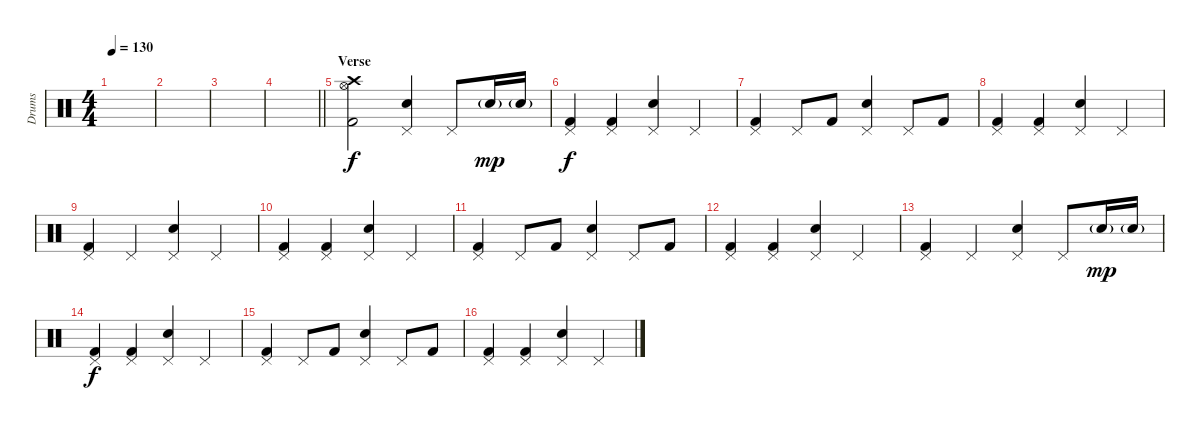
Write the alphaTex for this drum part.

\track ("Drums" "Drums") {instrument percussion}
\staff {score}
\articulation defaults
\ts (4 4)
\tempo 130
\clef neutral
\ks c
|
|
|
\barLineRight lightlight
|
\section ("" "Verse ")
("Crash high (hit)" "Hi-Hat (open)" "Kick (hit) 2").2{dy f} ("Pedal Hi-Hat (hit)" "Electric Snare (hit)").4 "Pedal Hi-Hat (hit)".8 "Electric Snare (hit)"{g}.16{dy mp} "Electric Snare (hit)"{g}.16 |
("Pedal Hi-Hat (hit)" "Kick (hit) 2").4{dy f} ("Pedal Hi-Hat (hit)" "Kick (hit) 2").4 ("Pedal Hi-Hat (hit)" "Electric Snare (hit)").4 "Pedal Hi-Hat (hit)".4 |
("Pedal Hi-Hat (hit)" "Kick (hit) 2").4 "Pedal Hi-Hat (hit)".8 "Kick (hit) 2".8 ("Pedal Hi-Hat (hit)" "Electric Snare (hit)").4 "Pedal Hi-Hat (hit)".8 "Kick (hit) 2".8 |
("Pedal Hi-Hat (hit)" "Kick (hit) 2").4 ("Pedal Hi-Hat (hit)" "Kick (hit) 2").4 ("Pedal Hi-Hat (hit)" "Electric Snare (hit)").4 "Pedal Hi-Hat (hit)".4 |
("Pedal Hi-Hat (hit)" "Kick (hit) 2").4 "Pedal Hi-Hat (hit)".4 ("Pedal Hi-Hat (hit)" "Electric Snare (hit)").4 "Pedal Hi-Hat (hit)".4 |
("Pedal Hi-Hat (hit)" "Kick (hit) 2").4 ("Pedal Hi-Hat (hit)" "Kick (hit) 2").4 ("Pedal Hi-Hat (hit)" "Electric Snare (hit)").4 "Pedal Hi-Hat (hit)".4 |
("Pedal Hi-Hat (hit)" "Kick (hit) 2").4 "Pedal Hi-Hat (hit)".8 "Kick (hit) 2".8 ("Pedal Hi-Hat (hit)" "Electric Snare (hit)").4 "Pedal Hi-Hat (hit)".8 "Kick (hit) 2".8 |
("Pedal Hi-Hat (hit)" "Kick (hit) 2").4 ("Pedal Hi-Hat (hit)" "Kick (hit) 2").4 ("Pedal Hi-Hat (hit)" "Electric Snare (hit)").4 "Pedal Hi-Hat (hit)".4 |
("Pedal Hi-Hat (hit)" "Kick (hit) 2").4 "Pedal Hi-Hat (hit)".4 ("Pedal Hi-Hat (hit)" "Electric Snare (hit)").4 "Pedal Hi-Hat (hit)".8 "Electric Snare (hit)"{g}.16{dy mp} "Electric Snare (hit)"{g}.16 |
("Pedal Hi-Hat (hit)" "Kick (hit) 2").4{dy f} ("Pedal Hi-Hat (hit)" "Kick (hit) 2").4 ("Pedal Hi-Hat (hit)" "Electric Snare (hit)").4 "Pedal Hi-Hat (hit)".4 |
("Pedal Hi-Hat (hit)" "Kick (hit) 2").4 "Pedal Hi-Hat (hit)".8 "Kick (hit) 2".8 ("Pedal Hi-Hat (hit)" "Electric Snare (hit)").4 "Pedal Hi-Hat (hit)".8 "Kick (hit) 2".8 |
("Pedal Hi-Hat (hit)" "Kick (hit) 2").4 ("Pedal Hi-Hat (hit)" "Kick (hit) 2").4 ("Pedal Hi-Hat (hit)" "Electric Snare (hit)").4 "Pedal Hi-Hat (hit)".4
